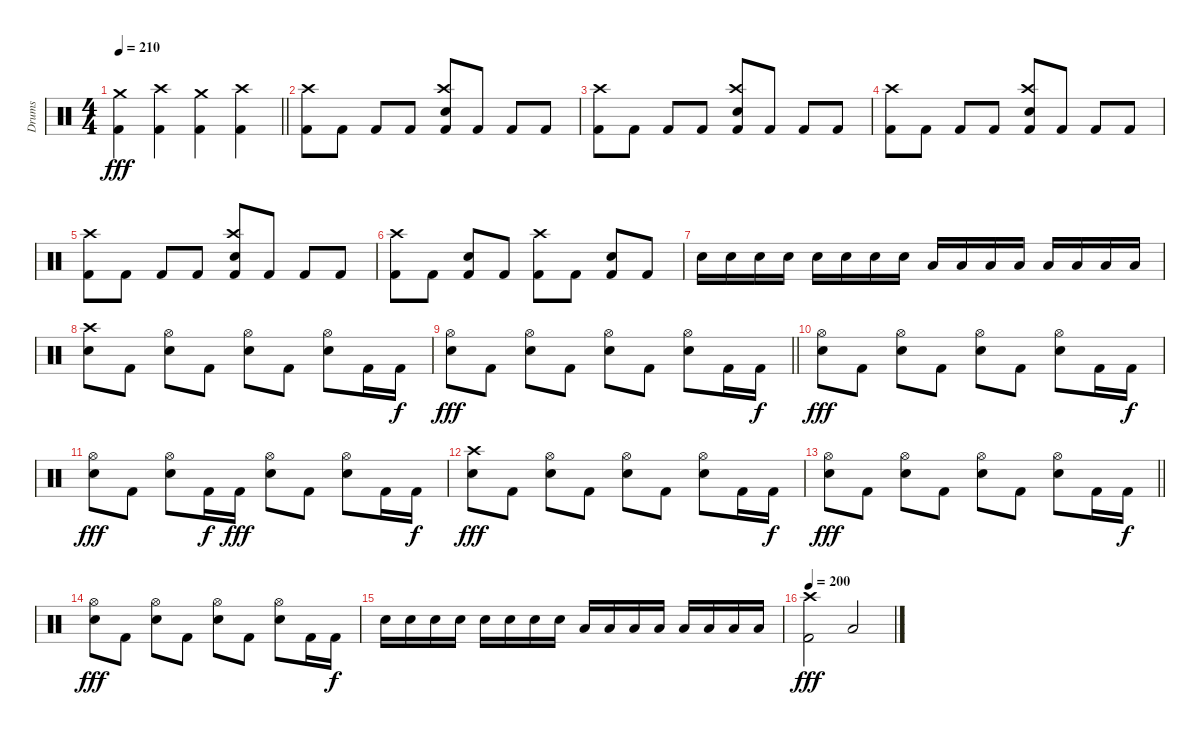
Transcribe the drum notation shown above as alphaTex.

\track ("Drums" "Drums") {instrument percussion}
\staff {score}
\articulation defaults
\ts (4 4)
\tempo 210
\clef neutral
\barLineRight lightlight
\ks c
("Crash medium (hit)" "Kick (hit) 2").4{dy fff} ("Crash high (hit)" "Kick (hit) 2").4 ("Crash medium (hit)" "Kick (hit) 2").4 ("Crash high (hit)" "Kick (hit) 2").4 |
("Crash high (hit)" "Kick (hit) 2").8 "Kick (hit) 2".8 "Kick (hit) 2".8 "Kick (hit) 2".8 ("Crash high (hit)" "Electric Snare (hit)" "Kick (hit) 2").8 "Kick (hit) 2".8 "Kick (hit) 2".8 "Kick (hit) 2".8 |
("Crash high (hit)" "Kick (hit) 2").8 "Kick (hit) 2".8 "Kick (hit) 2".8 "Kick (hit) 2".8 ("Crash high (hit)" "Electric Snare (hit)" "Kick (hit) 2").8 "Kick (hit) 2".8 "Kick (hit) 2".8 "Kick (hit) 2".8 |
("Crash high (hit)" "Kick (hit) 2").8 "Kick (hit) 2".8 "Kick (hit) 2".8 "Kick (hit) 2".8 ("Crash high (hit)" "Electric Snare (hit)" "Kick (hit) 2").8 "Kick (hit) 2".8 "Kick (hit) 2".8 "Kick (hit) 2".8 |
("Crash high (hit)" "Kick (hit) 2").8 "Kick (hit) 2".8 "Kick (hit) 2".8 "Kick (hit) 2".8 ("Crash high (hit)" "Electric Snare (hit)" "Kick (hit) 2").8 "Kick (hit) 2".8 "Kick (hit) 2".8 "Kick (hit) 2".8 |
("Crash high (hit)" "Kick (hit) 2").8 "Kick (hit) 2".8 ("Electric Snare (hit)" "Kick (hit) 2").8 "Kick (hit) 2".8 ("Crash high (hit)" "Kick (hit) 2").8 "Kick (hit) 2".8 ("Electric Snare (hit)" "Kick (hit) 2").8 "Kick (hit) 2".8 |
"Electric Snare (hit)".16 "Electric Snare (hit)".16 "Electric Snare (hit)".16 "Electric Snare (hit)".16 "Electric Snare (hit)".16 "Electric Snare (hit)".16 "Electric Snare (hit)".16 "Electric Snare (hit)".16 "Low Tom (hit)".16 "Low Tom (hit)".16 "Low Tom (hit)".16 "Low Tom (hit)".16 "Low Tom (hit)".16 "Low Tom (hit)".16 "Low Tom (hit)".16 "Low Tom (hit)".16 |
("Crash high (hit)" "Electric Snare (hit)").8 "Kick (hit) 2".8 ("Hi-Hat (open)" "Electric Snare (hit)").8 "Kick (hit) 2".8 ("Hi-Hat (open)" "Electric Snare (hit)").8 "Kick (hit) 2".8 ("Hi-Hat (open)" "Electric Snare (hit)").8 "Kick (hit) 2".16 "Kick (hit) 2".16{dy f} |
\barLineRight lightlight
("Hi-Hat (open)" "Electric Snare (hit)").8{dy fff} "Kick (hit) 2".8 ("Hi-Hat (open)" "Electric Snare (hit)").8 "Kick (hit) 2".8 ("Hi-Hat (open)" "Electric Snare (hit)").8 "Kick (hit) 2".8 ("Hi-Hat (open)" "Electric Snare (hit)").8 "Kick (hit) 2".16 "Kick (hit) 2".16{dy f} |
("Hi-Hat (open)" "Electric Snare (hit)").8{dy fff} "Kick (hit) 2".8 ("Hi-Hat (open)" "Electric Snare (hit)").8 "Kick (hit) 2".8 ("Hi-Hat (open)" "Electric Snare (hit)").8 "Kick (hit) 2".8 ("Hi-Hat (open)" "Electric Snare (hit)").8 "Kick (hit) 2".16 "Kick (hit) 2".16{dy f} |
("Hi-Hat (open)" "Electric Snare (hit)").8{dy fff} "Kick (hit) 2".8 ("Hi-Hat (open)" "Electric Snare (hit)").8 "Kick (hit) 2".16{dy f} "Kick (hit) 2".16{dy fff} ("Hi-Hat (open)" "Electric Snare (hit)").8 "Kick (hit) 2".8 ("Hi-Hat (open)" "Electric Snare (hit)").8 "Kick (hit) 2".16 "Kick (hit) 2".16{dy f} |
("Crash high (hit)" "Electric Snare (hit)").8{dy fff} "Kick (hit) 2".8 ("Hi-Hat (open)" "Electric Snare (hit)").8 "Kick (hit) 2".8 ("Hi-Hat (open)" "Electric Snare (hit)").8 "Kick (hit) 2".8 ("Hi-Hat (open)" "Electric Snare (hit)").8 "Kick (hit) 2".16 "Kick (hit) 2".16{dy f} |
\barLineRight lightlight
("Hi-Hat (open)" "Electric Snare (hit)").8{dy fff} "Kick (hit) 2".8 ("Hi-Hat (open)" "Electric Snare (hit)").8 "Kick (hit) 2".8 ("Hi-Hat (open)" "Electric Snare (hit)").8 "Kick (hit) 2".8 ("Hi-Hat (open)" "Electric Snare (hit)").8 "Kick (hit) 2".16 "Kick (hit) 2".16{dy f} |
("Hi-Hat (open)" "Electric Snare (hit)").8{dy fff} "Kick (hit) 2".8 ("Hi-Hat (open)" "Electric Snare (hit)").8 "Kick (hit) 2".8 ("Hi-Hat (open)" "Electric Snare (hit)").8 "Kick (hit) 2".8 ("Hi-Hat (open)" "Electric Snare (hit)").8 "Kick (hit) 2".16 "Kick (hit) 2".16{dy f} |
"Electric Snare (hit)".16 "Electric Snare (hit)".16 "Electric Snare (hit)".16 "Electric Snare (hit)".16 "Electric Snare (hit)".16 "Electric Snare (hit)".16 "Electric Snare (hit)".16 "Electric Snare (hit)".16 "Low Tom (hit)".16 "Low Tom (hit)".16 "Low Tom (hit)".16 "Low Tom (hit)".16 "Low Tom (hit)".16 "Low Tom (hit)".16 "Low Tom (hit)".16 "Low Tom (hit)".16 |
\tempo 200
("Crash high (hit)" "Kick (hit) 2").2{dy fff} "Low Floor Tom (hit)".2
